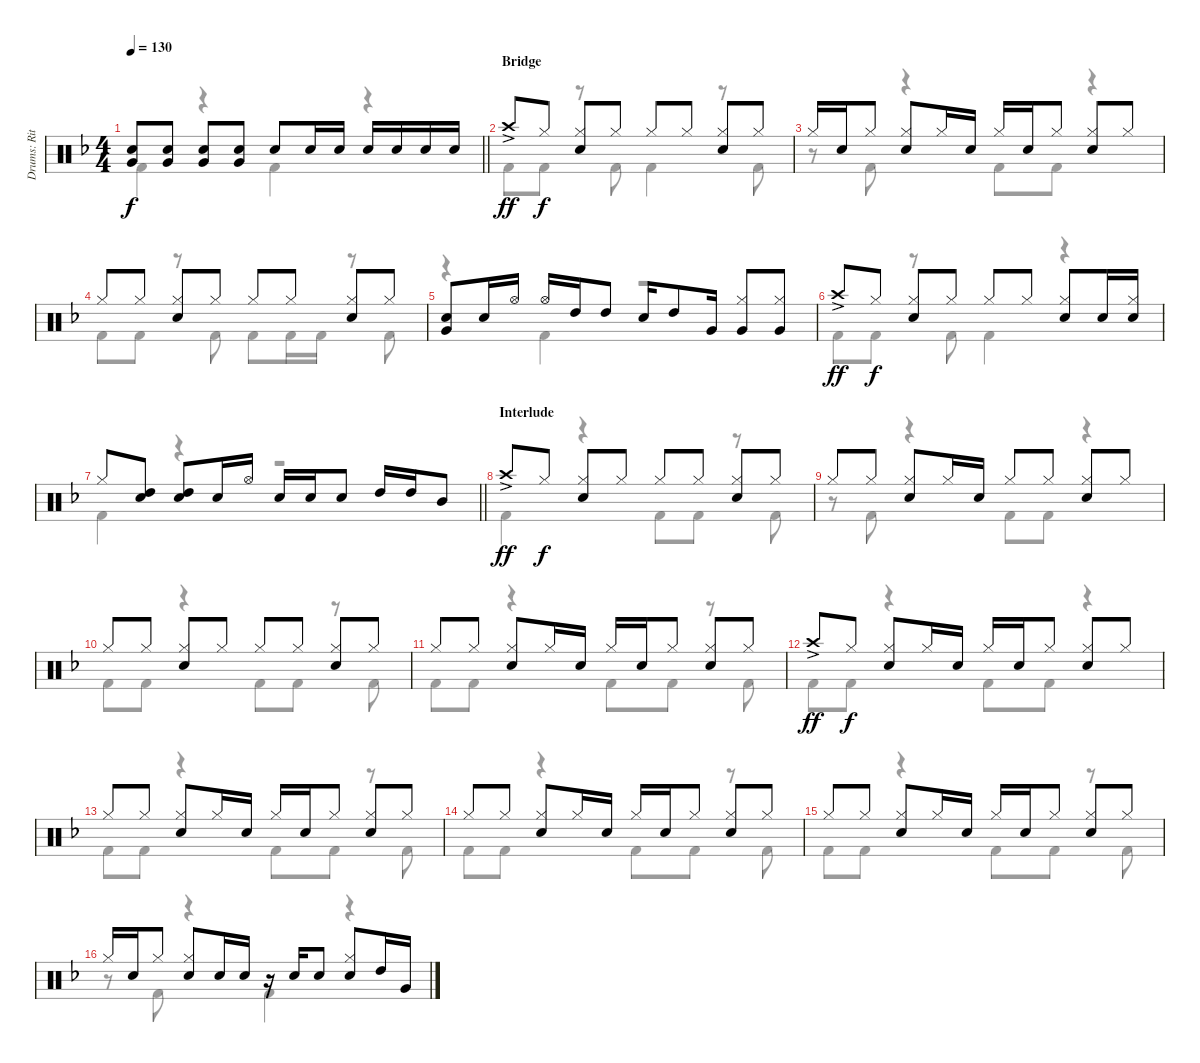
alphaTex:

\track ("Drums: Ritsu Tianaka" "Drums: Rit") {instrument percussion}
\staff {score}
\articulation defaults
\voice
\ts (4 4)
\tempo 130
\clef neutral
\barLineRight lightlight
\ks f
("Electric Snare (hit)" "Very Low Tom (hit)").8{dy f} ("Electric Snare (hit)" "Very Low Tom (hit)").8 ("Electric Snare (hit)" "Very Low Tom (hit)").8 ("Electric Snare (hit)" "Very Low Tom (hit)").8 "Electric Snare (hit)".8 "Electric Snare (hit)".16 "Electric Snare (hit)".16 "Electric Snare (hit)".16 "Electric Snare (hit)".16 "Electric Snare (hit)".16 "Electric Snare (hit)".16 |
\section ("" "Bridge")
"Crash high (hit)"{ac}.8{dy ff} "Hi-Hat (closed)".8{dy f} ("Hi-Hat (closed)" "Electric Snare (hit)").8 "Hi-Hat (closed)".8 "Hi-Hat (closed)".8 "Hi-Hat (closed)".8 ("Hi-Hat (closed)" "Electric Snare (hit)").8 "Hi-Hat (closed)".8 |
"Hi-Hat (closed)".16 "Electric Snare (hit)".16 "Hi-Hat (closed)".8 ("Hi-Hat (closed)" "Electric Snare (hit)").8 "Hi-Hat (closed)".16 "Electric Snare (hit)".16 "Hi-Hat (closed)".16 "Electric Snare (hit)".16 "Hi-Hat (closed)".8 ("Hi-Hat (closed)" "Electric Snare (hit)").8 "Hi-Hat (closed)".8 |
"Hi-Hat (closed)".8 "Hi-Hat (closed)".8 ("Hi-Hat (closed)" "Electric Snare (hit)").8 "Hi-Hat (closed)".8 "Hi-Hat (closed)".8 "Hi-Hat (closed)".8 ("Hi-Hat (closed)" "Electric Snare (hit)").8 "Hi-Hat (closed)".8 |
("Electric Snare (hit)" "Very Low Tom (hit)").8 "Electric Snare (hit)".16 "Hi-Hat (open)".16 "Hi-Hat (open)".16 "High Tom (hit)".16 "High Tom (hit)".8 "Electric Snare (hit)".16 "High Tom (hit)".8 "Very Low Tom (hit)".16 ("Hi-Hat (closed)" "Very Low Tom (hit)").8 ("Hi-Hat (closed)" "Very Low Tom (hit)").8 |
"Crash high (hit)"{ac}.8{dy ff} "Hi-Hat (closed)".8{dy f} ("Hi-Hat (closed)" "Electric Snare (hit)").8 "Hi-Hat (closed)".8 "Hi-Hat (closed)".8 "Hi-Hat (closed)".8 ("Hi-Hat (closed)" "Electric Snare (hit)").8 "Electric Snare (hit)".16 ("Hi-Hat (closed)" "Electric Snare (hit)").16 |
\barLineRight lightlight "Hi-Hat (closed)".8
("High Tom (hit)" "Electric Snare (hit)").8 ("High Tom (hit)" "Electric Snare (hit)").8 "Electric Snare (hit)".16 "Hi-Hat (open)".16 "Electric Snare (hit)".16 "Electric Snare (hit)".16 "Electric Snare (hit)".8 "High Tom (hit)".16 "High Tom (hit)".16 "Mid Tom (hit)".8 |
\section ("" "Interlude")
"Crash high (hit)"{ac}.8{dy ff} "Hi-Hat (closed)".8{dy f} ("Hi-Hat (closed)" "Electric Snare (hit)").8 "Hi-Hat (closed)".8 "Hi-Hat (closed)".8 "Hi-Hat (closed)".8 ("Hi-Hat (closed)" "Electric Snare (hit)").8 "Hi-Hat (closed)".8 |
"Hi-Hat (closed)".8 "Hi-Hat (closed)".8 ("Hi-Hat (closed)" "Electric Snare (hit)").8 "Hi-Hat (closed)".16 "Electric Snare (hit)".16 "Hi-Hat (closed)".8 "Hi-Hat (closed)".8 ("Hi-Hat (closed)" "Electric Snare (hit)").8 "Hi-Hat (closed)".8 |
"Hi-Hat (closed)".8 "Hi-Hat (closed)".8 ("Hi-Hat (closed)" "Electric Snare (hit)").8 "Hi-Hat (closed)".8 "Hi-Hat (closed)".8 "Hi-Hat (closed)".8 ("Hi-Hat (closed)" "Electric Snare (hit)").8 "Hi-Hat (closed)".8 |
"Hi-Hat (closed)".8 "Hi-Hat (closed)".8 ("Hi-Hat (closed)" "Electric Snare (hit)").8 "Hi-Hat (closed)".16 "Electric Snare (hit)".16 "Hi-Hat (closed)".16 "Electric Snare (hit)".16 "Hi-Hat (closed)".8 ("Hi-Hat (closed)" "Electric Snare (hit)").8 "Hi-Hat (closed)".8 |
"Crash high (hit)"{ac}.8{dy ff} "Hi-Hat (closed)".8{dy f} ("Hi-Hat (closed)" "Electric Snare (hit)").8 "Hi-Hat (closed)".16 "Electric Snare (hit)".16 "Hi-Hat (closed)".16 "Electric Snare (hit)".16 "Hi-Hat (closed)".8 ("Hi-Hat (closed)" "Electric Snare (hit)").8 "Hi-Hat (closed)".8 |
"Hi-Hat (closed)".8 "Hi-Hat (closed)".8 ("Hi-Hat (closed)" "Electric Snare (hit)").8 "Hi-Hat (closed)".16 "Electric Snare (hit)".16 "Hi-Hat (closed)".16 "Electric Snare (hit)".16 "Hi-Hat (closed)".8 ("Hi-Hat (closed)" "Electric Snare (hit)").8 "Hi-Hat (closed)".8 |
"Hi-Hat (closed)".8 "Hi-Hat (closed)".8 ("Hi-Hat (closed)" "Electric Snare (hit)").8 "Hi-Hat (closed)".16 "Electric Snare (hit)".16 "Hi-Hat (closed)".16 "Electric Snare (hit)".16 "Hi-Hat (closed)".8 ("Hi-Hat (closed)" "Electric Snare (hit)").8 "Hi-Hat (closed)".8 |
"Hi-Hat (closed)".8 "Hi-Hat (closed)".8 ("Hi-Hat (closed)" "Electric Snare (hit)").8 "Hi-Hat (closed)".16 "Electric Snare (hit)".16 "Hi-Hat (closed)".16 "Electric Snare (hit)".16 "Hi-Hat (closed)".8 ("Hi-Hat (closed)" "Electric Snare (hit)").8 "Hi-Hat (closed)".8 |
"Hi-Hat (closed)".16 "Electric Snare (hit)".16 "Hi-Hat (closed)".8 ("Hi-Hat (closed)" "Electric Snare (hit)").8 "Electric Snare (hit)".16 "Electric Snare (hit)".16 r.16 "Electric Snare (hit)".16 "Electric Snare (hit)".8 ("Hi-Hat (closed)" "Electric Snare (hit)").8 "High Tom (hit)".16 "Very Low Tom (hit)".16
\voice
\clef neutral
\ottava regular
\simile none
\barLineRight lightlight
\ks f "Kick (hit) 2".4{dy f}
r.4 "Kick (hit) 2".4 r.4 |
"Kick (hit) 2".8 "Kick (hit) 2".8 r.8 "Kick (hit) 2".8 "Kick (hit) 2".4 r.8 "Kick (hit) 2".8 |
r.8 "Kick (hit) 2".8 r.4 "Kick (hit) 2".8 "Kick (hit) 2".8 r.4 |
"Kick (hit) 2".8 "Kick (hit) 2".8 r.8 "Kick (hit) 2".8 "Kick (hit) 2".8 "Kick (hit) 2".16 "Kick (hit) 2".16 r.8 "Kick (hit) 2".8 |
r.4 "Kick (hit) 2".4 r.2 |
"Kick (hit) 2".8 "Kick (hit) 2".8 r.8 "Kick (hit) 2".8 "Kick (hit) 2".4 r.4 |
\barLineRight lightlight "Kick (hit) 2".4
r.4 r.2 |
"Kick (hit) 2".4 r.4 "Kick (hit) 2".8 "Kick (hit) 2".8 r.8 "Kick (hit) 2".8 |
r.8 "Kick (hit) 2".8 r.4 "Kick (hit) 2".8 "Kick (hit) 2".8 r.4 |
"Kick (hit) 2".8 "Kick (hit) 2".8 r.4 "Kick (hit) 2".8 "Kick (hit) 2".8 r.8 "Kick (hit) 2".8 |
"Kick (hit) 2".8 "Kick (hit) 2".8 r.4 "Kick (hit) 2".8 "Kick (hit) 2".8 r.8 "Kick (hit) 2".8 |
"Kick (hit) 2".8 "Kick (hit) 2".8 r.4 "Kick (hit) 2".8 "Kick (hit) 2".8 r.4 |
"Kick (hit) 2".8 "Kick (hit) 2".8 r.4 "Kick (hit) 2".8 "Kick (hit) 2".8 r.8 "Kick (hit) 2".8 |
"Kick (hit) 2".8 "Kick (hit) 2".8 r.4 "Kick (hit) 2".8 "Kick (hit) 2".8 r.8 "Kick (hit) 2".8 |
"Kick (hit) 2".8 "Kick (hit) 2".8 r.4 "Kick (hit) 2".8 "Kick (hit) 2".8 r.8 "Kick (hit) 2".8 |
r.8 "Kick (hit) 2".8 r.4 "Kick (hit) 2".4 r.4
